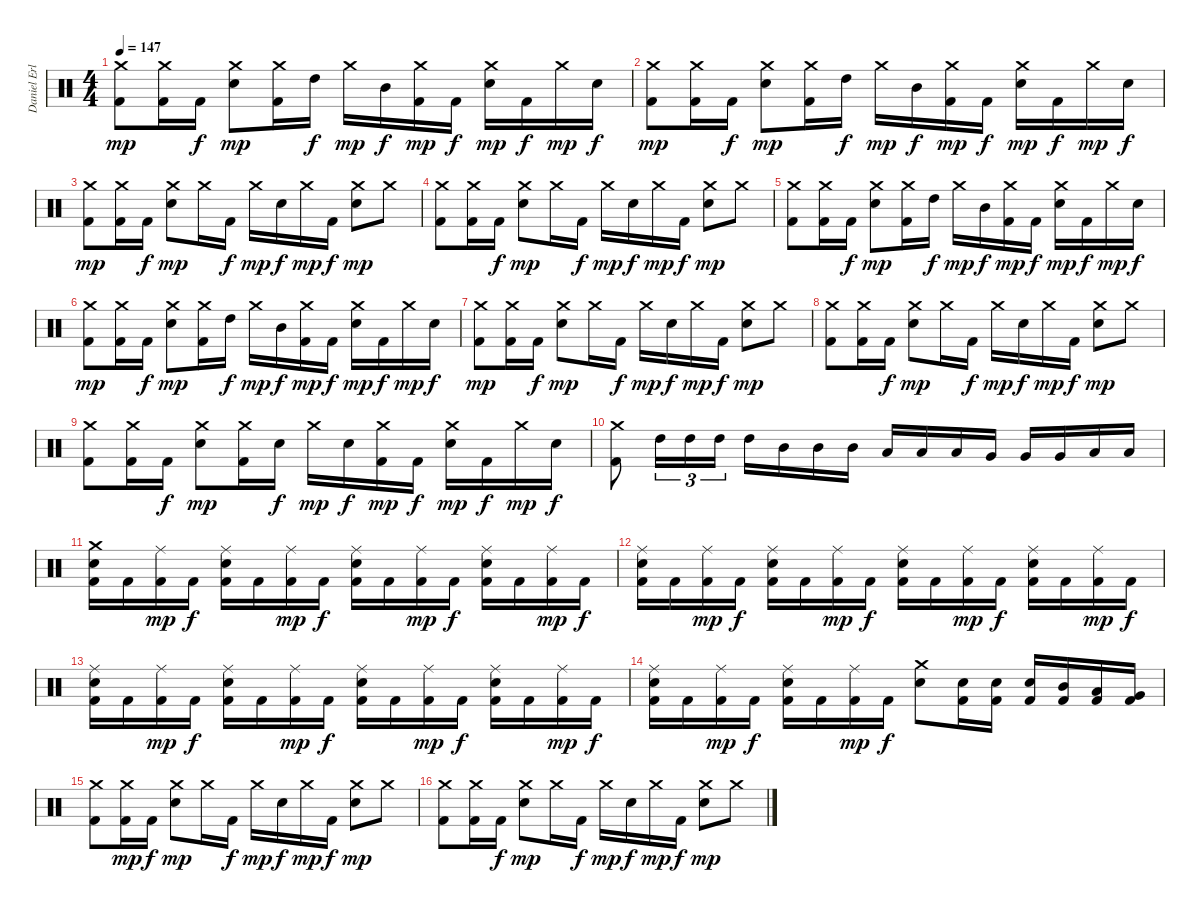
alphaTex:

\track ("Daniel Erlandsson" "Daniel Erl") {instrument percussion}
\staff {score}
\articulation defaults
\ts (4 4)
\tempo 147
\clef neutral
\ks c
("Crash medium (hit)" "Kick (hit) 2").8{dy mp} ("Crash medium (hit)" "Kick (hit) 2").16 "Kick (hit) 2".16{dy f} ("Crash medium (hit)" "Electric Snare (hit)").8{dy mp} ("Crash medium (hit)" "Kick (hit) 2").16 "High Tom (hit)".16{dy f} "Crash medium (hit)".16{dy mp} "Mid Tom (hit)".16{dy f} ("Crash medium (hit)" "Kick (hit) 2").16{dy mp} "Kick (hit) 2".16{dy f} ("Crash medium (hit)" "Electric Snare (hit)").16{dy mp} "Kick (hit) 2".16{dy f} "Crash medium (hit)".16{dy mp} "Electric Snare (hit)".16{dy f} |
("Crash medium (hit)" "Kick (hit) 2").8{dy mp} ("Crash medium (hit)" "Kick (hit) 2").16 "Kick (hit) 2".16{dy f} ("Crash medium (hit)" "Electric Snare (hit)").8{dy mp} ("Crash medium (hit)" "Kick (hit) 2").16 "High Tom (hit)".16{dy f} "Crash medium (hit)".16{dy mp} "Mid Tom (hit)".16{dy f} ("Crash medium (hit)" "Kick (hit) 2").16{dy mp} "Kick (hit) 2".16{dy f} ("Crash medium (hit)" "Electric Snare (hit)").16{dy mp} "Kick (hit) 2".16{dy f} "Crash medium (hit)".16{dy mp} "Electric Snare (hit)".16{dy f} |
("Crash medium (hit)" "Kick (hit) 2").8{dy mp} ("Crash medium (hit)" "Kick (hit) 2").16 "Kick (hit) 2".16{dy f} ("Crash medium (hit)" "Electric Snare (hit)").8{dy mp} "Crash medium (hit)".16 "Kick (hit) 2".16{dy f} "Crash medium (hit)".16{dy mp} "Electric Snare (hit)".16{dy f} "Crash medium (hit)".16{dy mp} "Kick (hit) 2".16{dy f} ("Crash medium (hit)" "Electric Snare (hit)").8{dy mp} "Crash medium (hit)".8 |
("Crash medium (hit)" "Kick (hit) 2").8 ("Crash medium (hit)" "Kick (hit) 2").16 "Kick (hit) 2".16{dy f} ("Crash medium (hit)" "Electric Snare (hit)").8{dy mp} "Crash medium (hit)".16 "Kick (hit) 2".16{dy f} "Crash medium (hit)".16{dy mp} "Electric Snare (hit)".16{dy f} "Crash medium (hit)".16{dy mp} "Kick (hit) 2".16{dy f} ("Crash medium (hit)" "Electric Snare (hit)").8{dy mp} "Crash medium (hit)".8 |
("Crash medium (hit)" "Kick (hit) 2").8 ("Crash medium (hit)" "Kick (hit) 2").16 "Kick (hit) 2".16{dy f} ("Crash medium (hit)" "Electric Snare (hit)").8{dy mp} ("Crash medium (hit)" "Kick (hit) 2").16 "High Tom (hit)".16{dy f} "Crash medium (hit)".16{dy mp} "Mid Tom (hit)".16{dy f} ("Crash medium (hit)" "Kick (hit) 2").16{dy mp} "Kick (hit) 2".16{dy f} ("Crash medium (hit)" "Electric Snare (hit)").16{dy mp} "Kick (hit) 2".16{dy f} "Crash medium (hit)".16{dy mp} "Electric Snare (hit)".16{dy f} |
("Crash medium (hit)" "Kick (hit) 2").8{dy mp} ("Crash medium (hit)" "Kick (hit) 2").16 "Kick (hit) 2".16{dy f} ("Crash medium (hit)" "Electric Snare (hit)").8{dy mp} ("Crash medium (hit)" "Kick (hit) 2").16 "High Tom (hit)".16{dy f} "Crash medium (hit)".16{dy mp} "Mid Tom (hit)".16{dy f} ("Crash medium (hit)" "Kick (hit) 2").16{dy mp} "Kick (hit) 2".16{dy f} ("Crash medium (hit)" "Electric Snare (hit)").16{dy mp} "Kick (hit) 2".16{dy f} "Crash medium (hit)".16{dy mp} "Electric Snare (hit)".16{dy f} |
("Crash medium (hit)" "Kick (hit) 2").8{dy mp} ("Crash medium (hit)" "Kick (hit) 2").16 "Kick (hit) 2".16{dy f} ("Crash medium (hit)" "Electric Snare (hit)").8{dy mp} "Crash medium (hit)".16 "Kick (hit) 2".16{dy f} "Crash medium (hit)".16{dy mp} "Electric Snare (hit)".16{dy f} "Crash medium (hit)".16{dy mp} "Kick (hit) 2".16{dy f} ("Crash medium (hit)" "Electric Snare (hit)").8{dy mp} "Crash medium (hit)".8 |
("Crash medium (hit)" "Kick (hit) 2").8 ("Crash medium (hit)" "Kick (hit) 2").16 "Kick (hit) 2".16{dy f} ("Crash medium (hit)" "Electric Snare (hit)").8{dy mp} "Crash medium (hit)".16 "Kick (hit) 2".16{dy f} "Crash medium (hit)".16{dy mp} "Electric Snare (hit)".16{dy f} "Crash medium (hit)".16{dy mp} "Kick (hit) 2".16{dy f} ("Crash medium (hit)" "Electric Snare (hit)").8{dy mp} "Crash medium (hit)".8 |
("Crash medium (hit)" "Kick (hit) 2").8 ("Crash medium (hit)" "Kick (hit) 2").16 "Kick (hit) 2".16{dy f} ("Crash medium (hit)" "Electric Snare (hit)").8{dy mp} ("Crash medium (hit)" "Kick (hit) 2").16 "Electric Snare (hit)".16{dy f} "Crash medium (hit)".16{dy mp} "Electric Snare (hit)".16{dy f} ("Crash medium (hit)" "Kick (hit) 2").16{dy mp} "Kick (hit) 2".16{dy f} ("Crash medium (hit)" "Electric Snare (hit)").16{dy mp} "Kick (hit) 2".16{dy f} "Crash medium (hit)".16{dy mp} "Electric Snare (hit)".16{dy f} |
("Crash medium (hit)" "Kick (hit) 2").8 "High Tom (hit)".16{tu (3 2)} "High Tom (hit)".16{tu (3 2)} "High Tom (hit)".16{tu (3 2)} "High Tom (hit)".16 "Mid Tom (hit)".16 "Mid Tom (hit)".16 "Mid Tom (hit)".16 "Low Tom (hit)".16 "Low Tom (hit)".16 "Low Tom (hit)".16 "Very Low Tom (hit)".16 "Very Low Tom (hit)".16 "Very Low Tom (hit)".16 "Low Floor Tom (hit)".16 "Low Floor Tom (hit)".16 |
("Crash medium (hit)" "Electric Snare (hit)" "Kick (hit) 2").16 "Kick (hit) 2".16 ("Ride (middle)" "Kick (hit) 2").16{dy mp} "Kick (hit) 2".16{dy f} ("Ride (middle)" "Electric Snare (hit)" "Kick (hit) 2").16 "Kick (hit) 2".16 ("Ride (middle)" "Kick (hit) 2").16{dy mp} "Kick (hit) 2".16{dy f} ("Ride (middle)" "Electric Snare (hit)" "Kick (hit) 2").16 "Kick (hit) 2".16 ("Ride (middle)" "Kick (hit) 2").16{dy mp} "Kick (hit) 2".16{dy f} ("Ride (middle)" "Electric Snare (hit)" "Kick (hit) 2").16 "Kick (hit) 2".16 ("Ride (middle)" "Kick (hit) 2").16{dy mp} "Kick (hit) 2".16{dy f} |
("Ride (middle)" "Electric Snare (hit)" "Kick (hit) 2").16 "Kick (hit) 2".16 ("Ride (middle)" "Kick (hit) 2").16{dy mp} "Kick (hit) 2".16{dy f} ("Ride (middle)" "Electric Snare (hit)" "Kick (hit) 2").16 "Kick (hit) 2".16 ("Ride (middle)" "Kick (hit) 2").16{dy mp} "Kick (hit) 2".16{dy f} ("Ride (middle)" "Electric Snare (hit)" "Kick (hit) 2").16 "Kick (hit) 2".16 ("Ride (middle)" "Kick (hit) 2").16{dy mp} "Kick (hit) 2".16{dy f} ("Ride (middle)" "Electric Snare (hit)" "Kick (hit) 2").16 "Kick (hit) 2".16 ("Ride (middle)" "Kick (hit) 2").16{dy mp} "Kick (hit) 2".16{dy f} |
("Ride (middle)" "Electric Snare (hit)" "Kick (hit) 2").16 "Kick (hit) 2".16 ("Ride (middle)" "Kick (hit) 2").16{dy mp} "Kick (hit) 2".16{dy f} ("Ride (middle)" "Electric Snare (hit)" "Kick (hit) 2").16 "Kick (hit) 2".16 ("Ride (middle)" "Kick (hit) 2").16{dy mp} "Kick (hit) 2".16{dy f} ("Ride (middle)" "Electric Snare (hit)" "Kick (hit) 2").16 "Kick (hit) 2".16 ("Ride (middle)" "Kick (hit) 2").16{dy mp} "Kick (hit) 2".16{dy f} ("Ride (middle)" "Electric Snare (hit)" "Kick (hit) 2").16 "Kick (hit) 2".16 ("Ride (middle)" "Kick (hit) 2").16{dy mp} "Kick (hit) 2".16{dy f} |
("Ride (middle)" "Electric Snare (hit)" "Kick (hit) 2").16 "Kick (hit) 2".16 ("Ride (middle)" "Kick (hit) 2").16{dy mp} "Kick (hit) 2".16{dy f} ("Ride (middle)" "Electric Snare (hit)" "Kick (hit) 2").16 "Kick (hit) 2".16 ("Ride (middle)" "Kick (hit) 2").16{dy mp} "Kick (hit) 2".16{dy f} ("Crash medium (hit)" "Electric Snare (hit)").8 ("Electric Snare (hit)" "Kick (hit) 2").16 ("Electric Snare (hit)" "Kick (hit) 2").16 ("Electric Snare (hit)" "Kick (hit) 2").16 ("Mid Tom (hit)" "Kick (hit) 2").16 ("Low Tom (hit)" "Kick (hit) 2").16 ("Very Low Tom (hit)" "Kick (hit) 2").16 |
("Crash medium (hit)" "Kick (hit) 2").8 ("Crash medium (hit)" "Kick (hit) 2").16{dy mp} "Kick (hit) 2".16{dy f} ("Crash medium (hit)" "Electric Snare (hit)").8{dy mp} "Crash medium (hit)".16 "Kick (hit) 2".16{dy f} "Crash medium (hit)".16{dy mp} "Electric Snare (hit)".16{dy f} "Crash medium (hit)".16{dy mp} "Kick (hit) 2".16{dy f} ("Crash medium (hit)" "Electric Snare (hit)").8{dy mp} "Crash medium (hit)".8 |
("Crash medium (hit)" "Kick (hit) 2").8 ("Crash medium (hit)" "Kick (hit) 2").16 "Kick (hit) 2".16{dy f} ("Crash medium (hit)" "Electric Snare (hit)").8{dy mp} "Crash medium (hit)".16 "Kick (hit) 2".16{dy f} "Crash medium (hit)".16{dy mp} "Electric Snare (hit)".16{dy f} "Crash medium (hit)".16{dy mp} "Kick (hit) 2".16{dy f} ("Crash medium (hit)" "Electric Snare (hit)").8{dy mp} "Crash medium (hit)".8
